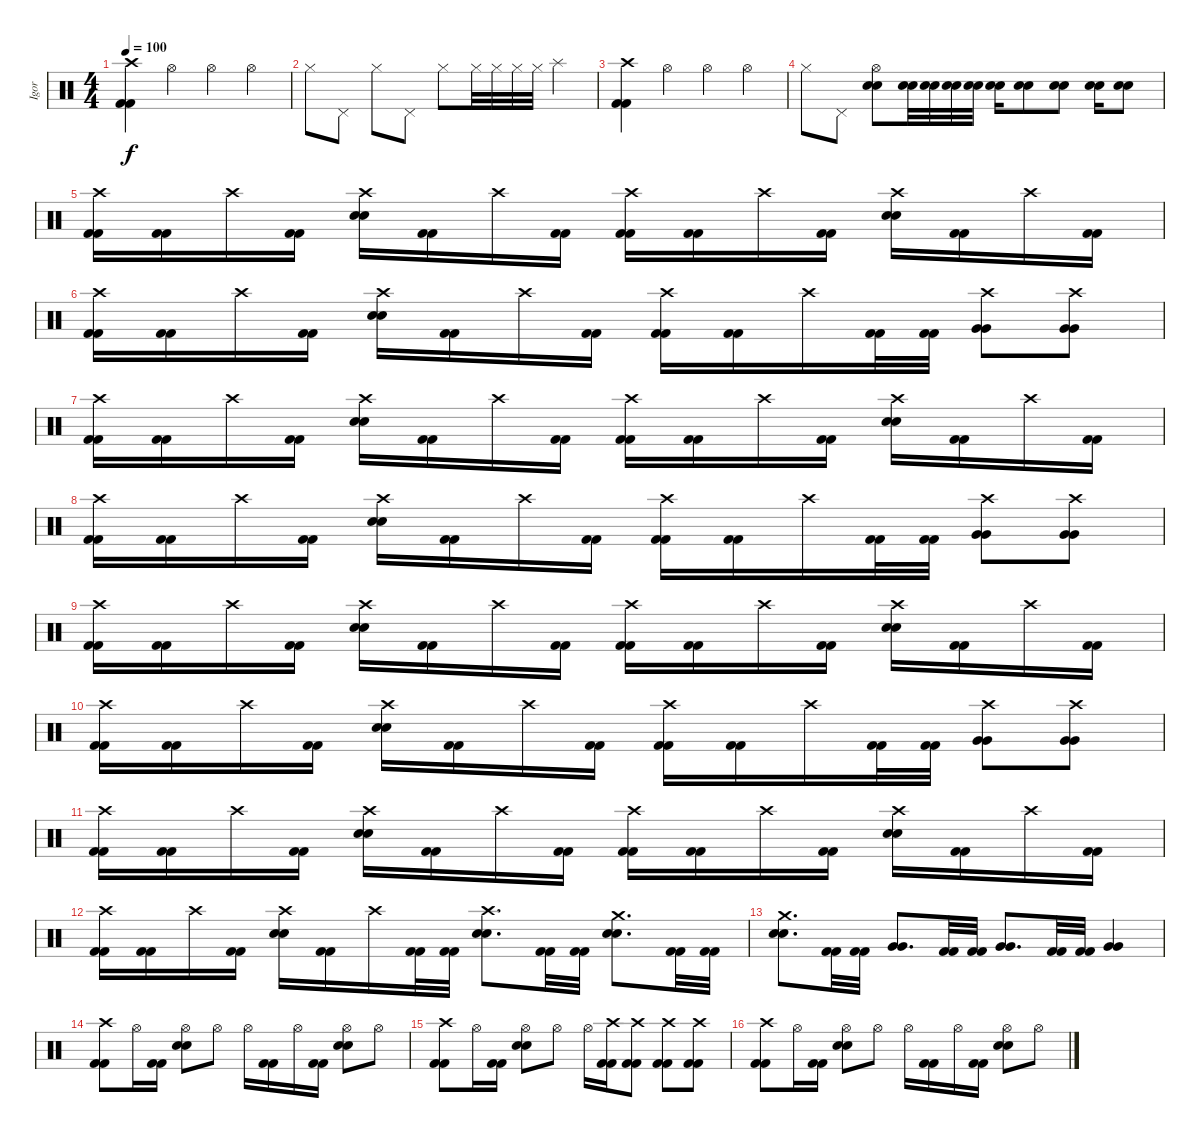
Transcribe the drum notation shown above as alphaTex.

\track ("Igor" "Igor") {instrument percussion}
\staff {score}
\articulation defaults
\ts (4 4)
\tempo 100
\clef neutral
\ks c
("Crash high (hit)" "Kick (hit) 2" "Kick (hit) 2").4{dy f} "Hi-Hat (open)".4 "Hi-Hat (open)".4 "Hi-Hat (open)".4 |
"Hi-Hat (closed)".8 "Pedal Hi-Hat (hit)".8 "Hi-Hat (closed)".8 "Pedal Hi-Hat (hit)".8 "Hi-Hat (closed)".8 "Hi-Hat (closed)".32 "Hi-Hat (closed)".32 "Hi-Hat (closed)".32 "Hi-Hat (closed)".32 "Splash (hit)".4 |
("Crash high (hit)" "Kick (hit) 2" "Kick (hit) 2").4 "Hi-Hat (open)".4 "Hi-Hat (open)".4 "Hi-Hat (open)".4 |
"Hi-Hat (closed)".8 "Pedal Hi-Hat (hit)".8 ("Hi-Hat (open)" "Electric Snare (hit)" "Electric Snare (hit)").8 ("Electric Snare (hit)" "Electric Snare (hit)").32 ("Electric Snare (hit)" "Electric Snare (hit)").32 ("Electric Snare (hit)" "Electric Snare (hit)").32 ("Electric Snare (hit)" "Electric Snare (hit)").32 ("Electric Snare (hit)" "Electric Snare (hit)").16 ("Electric Snare (hit)" "Electric Snare (hit)").8 ("Electric Snare (hit)" "Electric Snare (hit)").8 ("Electric Snare (hit)" "Electric Snare (hit)").16 ("Electric Snare (hit)" "Electric Snare (hit)").8 |
("Crash high (hit)" "Kick (hit) 2" "Kick (hit) 2").16 ("Kick (hit) 2" "Kick (hit) 2").16 "Crash high (hit)".16 ("Kick (hit) 2" "Kick (hit) 2").16 ("Crash high (hit)" "Electric Snare (hit)" "Electric Snare (hit)").16 ("Kick (hit) 2" "Kick (hit) 2").16 "Crash high (hit)".16 ("Kick (hit) 2" "Kick (hit) 2").16 ("Crash high (hit)" "Kick (hit) 2" "Kick (hit) 2").16 ("Kick (hit) 2" "Kick (hit) 2").16 "Crash high (hit)".16 ("Kick (hit) 2" "Kick (hit) 2").16 ("Crash high (hit)" "Electric Snare (hit)" "Electric Snare (hit)").16 ("Kick (hit) 2" "Kick (hit) 2").16 "Crash high (hit)".16 ("Kick (hit) 2" "Kick (hit) 2").16 |
("Crash high (hit)" "Kick (hit) 2" "Kick (hit) 2").16 ("Kick (hit) 2" "Kick (hit) 2").16 "Crash high (hit)".16 ("Kick (hit) 2" "Kick (hit) 2").16 ("Crash high (hit)" "Electric Snare (hit)" "Electric Snare (hit)").16 ("Kick (hit) 2" "Kick (hit) 2").16 "Crash high (hit)".16 ("Kick (hit) 2" "Kick (hit) 2").16 ("Crash high (hit)" "Kick (hit) 2" "Kick (hit) 2").16 ("Kick (hit) 2" "Kick (hit) 2").16 "Crash high (hit)".16 ("Kick (hit) 2" "Kick (hit) 2").32 ("Kick (hit) 2" "Kick (hit) 2").32 ("Crash high (hit)" "Very Low Tom (hit)" "Very Low Tom (hit)").8 ("Crash high (hit)" "Very Low Tom (hit)" "Very Low Tom (hit)").8 |
("Crash high (hit)" "Kick (hit) 2" "Kick (hit) 2").16 ("Kick (hit) 2" "Kick (hit) 2").16 "Crash high (hit)".16 ("Kick (hit) 2" "Kick (hit) 2").16 ("Crash high (hit)" "Electric Snare (hit)" "Electric Snare (hit)").16 ("Kick (hit) 2" "Kick (hit) 2").16 "Crash high (hit)".16 ("Kick (hit) 2" "Kick (hit) 2").16 ("Crash high (hit)" "Kick (hit) 2" "Kick (hit) 2").16 ("Kick (hit) 2" "Kick (hit) 2").16 "Crash high (hit)".16 ("Kick (hit) 2" "Kick (hit) 2").16 ("Crash high (hit)" "Electric Snare (hit)" "Electric Snare (hit)").16 ("Kick (hit) 2" "Kick (hit) 2").16 "Crash high (hit)".16 ("Kick (hit) 2" "Kick (hit) 2").16 |
("Crash high (hit)" "Kick (hit) 2" "Kick (hit) 2").16 ("Kick (hit) 2" "Kick (hit) 2").16 "Crash high (hit)".16 ("Kick (hit) 2" "Kick (hit) 2").16 ("Crash high (hit)" "Electric Snare (hit)" "Electric Snare (hit)").16 ("Kick (hit) 2" "Kick (hit) 2").16 "Crash high (hit)".16 ("Kick (hit) 2" "Kick (hit) 2").16 ("Crash high (hit)" "Kick (hit) 2" "Kick (hit) 2").16 ("Kick (hit) 2" "Kick (hit) 2").16 "Crash high (hit)".16 ("Kick (hit) 2" "Kick (hit) 2").32 ("Kick (hit) 2" "Kick (hit) 2").32 ("Crash high (hit)" "Very Low Tom (hit)" "Very Low Tom (hit)").8 ("Crash high (hit)" "Very Low Tom (hit)" "Very Low Tom (hit)").8 |
("Crash high (hit)" "Kick (hit) 2" "Kick (hit) 2").16 ("Kick (hit) 2" "Kick (hit) 2").16 "Crash high (hit)".16 ("Kick (hit) 2" "Kick (hit) 2").16 ("Crash high (hit)" "Electric Snare (hit)" "Electric Snare (hit)").16 ("Kick (hit) 2" "Kick (hit) 2").16 "Crash high (hit)".16 ("Kick (hit) 2" "Kick (hit) 2").16 ("Crash high (hit)" "Kick (hit) 2" "Kick (hit) 2").16 ("Kick (hit) 2" "Kick (hit) 2").16 "Crash high (hit)".16 ("Kick (hit) 2" "Kick (hit) 2").16 ("Crash high (hit)" "Electric Snare (hit)" "Electric Snare (hit)").16 ("Kick (hit) 2" "Kick (hit) 2").16 "Crash high (hit)".16 ("Kick (hit) 2" "Kick (hit) 2").16 |
("Crash high (hit)" "Kick (hit) 2" "Kick (hit) 2").16 ("Kick (hit) 2" "Kick (hit) 2").16 "Crash high (hit)".16 ("Kick (hit) 2" "Kick (hit) 2").16 ("Crash high (hit)" "Electric Snare (hit)" "Electric Snare (hit)").16 ("Kick (hit) 2" "Kick (hit) 2").16 "Crash high (hit)".16 ("Kick (hit) 2" "Kick (hit) 2").16 ("Crash high (hit)" "Kick (hit) 2" "Kick (hit) 2").16 ("Kick (hit) 2" "Kick (hit) 2").16 "Crash high (hit)".16 ("Kick (hit) 2" "Kick (hit) 2").32 ("Kick (hit) 2" "Kick (hit) 2").32 ("Crash high (hit)" "Very Low Tom (hit)" "Very Low Tom (hit)").8 ("Crash high (hit)" "Very Low Tom (hit)" "Very Low Tom (hit)").8 |
("Crash high (hit)" "Kick (hit) 2" "Kick (hit) 2").16 ("Kick (hit) 2" "Kick (hit) 2").16 "Crash high (hit)".16 ("Kick (hit) 2" "Kick (hit) 2").16 ("Crash high (hit)" "Electric Snare (hit)" "Electric Snare (hit)").16 ("Kick (hit) 2" "Kick (hit) 2").16 "Crash high (hit)".16 ("Kick (hit) 2" "Kick (hit) 2").16 ("Crash high (hit)" "Kick (hit) 2" "Kick (hit) 2").16 ("Kick (hit) 2" "Kick (hit) 2").16 "Crash high (hit)".16 ("Kick (hit) 2" "Kick (hit) 2").16 ("Crash high (hit)" "Electric Snare (hit)" "Electric Snare (hit)").16 ("Kick (hit) 2" "Kick (hit) 2").16 "Crash high (hit)".16 ("Kick (hit) 2" "Kick (hit) 2").16 |
("Crash high (hit)" "Kick (hit) 2" "Kick (hit) 2").16 ("Kick (hit) 2" "Kick (hit) 2").16 "Crash high (hit)".16 ("Kick (hit) 2" "Kick (hit) 2").16 ("Crash high (hit)" "Electric Snare (hit)" "Electric Snare (hit)").16 ("Kick (hit) 2" "Kick (hit) 2").16 "Crash high (hit)".16 ("Kick (hit) 2" "Kick (hit) 2").32 ("Kick (hit) 2" "Kick (hit) 2").32 ("Crash high (hit)" "Electric Snare (hit)" "Electric Snare (hit)").8{d} ("Kick (hit) 2" "Kick (hit) 2").32 ("Kick (hit) 2" "Kick (hit) 2").32 ("Crash medium (hit)" "Electric Snare (hit)" "Electric Snare (hit)").8{d} ("Kick (hit) 2" "Kick (hit) 2").32 ("Kick (hit) 2" "Kick (hit) 2").32 |
("Crash medium (hit)" "Electric Snare (hit)" "Electric Snare (hit)").8{d} ("Kick (hit) 2" "Kick (hit) 2").32 ("Kick (hit) 2" "Kick (hit) 2").32 ("Very Low Tom (hit)" "Very Low Tom (hit)").8{d} ("Kick (hit) 2" "Kick (hit) 2").32 ("Kick (hit) 2" "Kick (hit) 2").32 ("Very Low Tom (hit)" "Very Low Tom (hit)").8{d} ("Kick (hit) 2" "Kick (hit) 2").32 ("Kick (hit) 2" "Kick (hit) 2").32 ("Very Low Tom (hit)" "Very Low Tom (hit)").4 |
("Crash high (hit)" "Kick (hit) 2" "Kick (hit) 2").8 "Hi-Hat (open)".16 ("Kick (hit) 2" "Kick (hit) 2").16 ("Hi-Hat (open)" "Electric Snare (hit)" "Electric Snare (hit)").8 "Hi-Hat (open)".8 "Hi-Hat (open)".16 ("Kick (hit) 2" "Kick (hit) 2").16 "Hi-Hat (open)".16 ("Kick (hit) 2" "Kick (hit) 2").16 ("Hi-Hat (open)" "Electric Snare (hit)" "Electric Snare (hit)").8 "Hi-Hat (open)".8 |
("Crash high (hit)" "Kick (hit) 2" "Kick (hit) 2").8 "Hi-Hat (open)".16 ("Kick (hit) 2" "Kick (hit) 2").16 ("Hi-Hat (open)" "Electric Snare (hit)" "Electric Snare (hit)").8 "Hi-Hat (open)".8 "Hi-Hat (open)".16 ("Crash high (hit)" "Kick (hit) 2" "Kick (hit) 2").16 ("Crash high (hit)" "Kick (hit) 2" "Kick (hit) 2").8 ("Crash high (hit)" "Kick (hit) 2" "Kick (hit) 2").8 ("Crash high (hit)" "Kick (hit) 2" "Kick (hit) 2").8 |
("Crash high (hit)" "Kick (hit) 2" "Kick (hit) 2").8 "Hi-Hat (open)".16 ("Kick (hit) 2" "Kick (hit) 2").16 ("Hi-Hat (open)" "Electric Snare (hit)" "Electric Snare (hit)").8 "Hi-Hat (open)".8 "Hi-Hat (open)".16 ("Kick (hit) 2" "Kick (hit) 2").16 "Hi-Hat (open)".16 ("Kick (hit) 2" "Kick (hit) 2").16 ("Hi-Hat (open)" "Electric Snare (hit)" "Electric Snare (hit)").8 "Hi-Hat (open)".8
